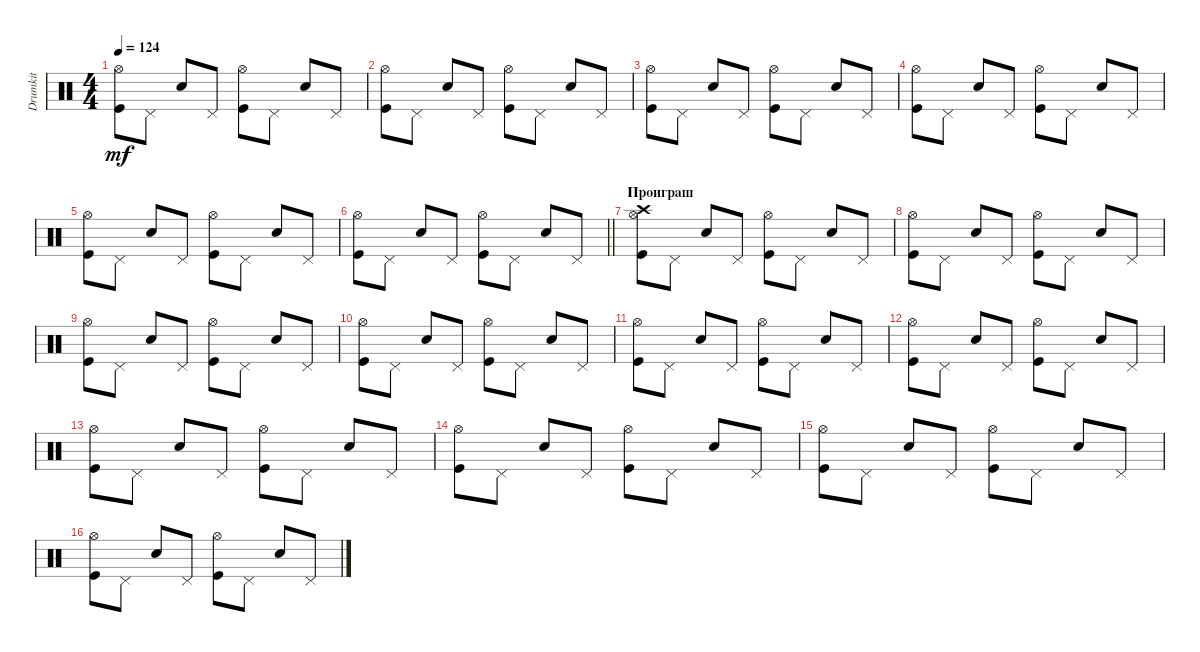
\track ("Drumkit" "Drumkit") {instrument percussion}
\staff {score}
\articulation defaults
\ts (4 4)
\tempo 124
\clef neutral
\ks c
("Kick (hit)" "Hi-Hat (open)").8{dy mf} "Pedal Hi-Hat (hit)".8 "Snare (hit) 2".8 "Pedal Hi-Hat (hit)".8 ("Kick (hit)" "Hi-Hat (open)").8 "Pedal Hi-Hat (hit)".8 "Snare (hit) 2".8 "Pedal Hi-Hat (hit)".8 |
("Kick (hit)" "Hi-Hat (open)").8 "Pedal Hi-Hat (hit)".8 "Snare (hit) 2".8 "Pedal Hi-Hat (hit)".8 ("Kick (hit)" "Hi-Hat (open)").8 "Pedal Hi-Hat (hit)".8 "Snare (hit) 2".8 "Pedal Hi-Hat (hit)".8 |
("Kick (hit)" "Hi-Hat (open)").8 "Pedal Hi-Hat (hit)".8 "Snare (hit) 2".8 "Pedal Hi-Hat (hit)".8 ("Kick (hit)" "Hi-Hat (open)").8 "Pedal Hi-Hat (hit)".8 "Snare (hit) 2".8 "Pedal Hi-Hat (hit)".8 |
("Kick (hit)" "Hi-Hat (open)").8 "Pedal Hi-Hat (hit)".8 "Snare (hit) 2".8 "Pedal Hi-Hat (hit)".8 ("Kick (hit)" "Hi-Hat (open)").8 "Pedal Hi-Hat (hit)".8 "Snare (hit) 2".8 "Pedal Hi-Hat (hit)".8 |
("Kick (hit)" "Hi-Hat (open)").8 "Pedal Hi-Hat (hit)".8 "Snare (hit) 2".8 "Pedal Hi-Hat (hit)".8 ("Kick (hit)" "Hi-Hat (open)").8 "Pedal Hi-Hat (hit)".8 "Snare (hit) 2".8 "Pedal Hi-Hat (hit)".8 |
\barLineRight lightlight
("Kick (hit)" "Hi-Hat (open)").8 "Pedal Hi-Hat (hit)".8 "Snare (hit) 2".8 "Pedal Hi-Hat (hit)".8 ("Kick (hit)" "Hi-Hat (open)").8 "Pedal Hi-Hat (hit)".8 "Snare (hit) 2".8 "Pedal Hi-Hat (hit)".8 |
\section ("" "Проиграш")
("Kick (hit)" "Hi-Hat (open)" "Crash high (hit)").8 "Pedal Hi-Hat (hit)".8 "Snare (hit) 2".8 "Pedal Hi-Hat (hit)".8 ("Kick (hit)" "Hi-Hat (open)").8 "Pedal Hi-Hat (hit)".8 "Snare (hit) 2".8 "Pedal Hi-Hat (hit)".8 |
("Kick (hit)" "Hi-Hat (open)").8 "Pedal Hi-Hat (hit)".8 "Snare (hit) 2".8 "Pedal Hi-Hat (hit)".8 ("Kick (hit)" "Hi-Hat (open)").8 "Pedal Hi-Hat (hit)".8 "Snare (hit) 2".8 "Pedal Hi-Hat (hit)".8 |
("Kick (hit)" "Hi-Hat (open)").8 "Pedal Hi-Hat (hit)".8 "Snare (hit) 2".8 "Pedal Hi-Hat (hit)".8 ("Kick (hit)" "Hi-Hat (open)").8 "Pedal Hi-Hat (hit)".8 "Snare (hit) 2".8 "Pedal Hi-Hat (hit)".8 |
("Kick (hit)" "Hi-Hat (open)").8 "Pedal Hi-Hat (hit)".8 "Snare (hit) 2".8 "Pedal Hi-Hat (hit)".8 ("Kick (hit)" "Hi-Hat (open)").8 "Pedal Hi-Hat (hit)".8 "Snare (hit) 2".8 "Pedal Hi-Hat (hit)".8 |
("Kick (hit)" "Hi-Hat (open)").8 "Pedal Hi-Hat (hit)".8 "Snare (hit) 2".8 "Pedal Hi-Hat (hit)".8 ("Kick (hit)" "Hi-Hat (open)").8 "Pedal Hi-Hat (hit)".8 "Snare (hit) 2".8 "Pedal Hi-Hat (hit)".8 |
("Kick (hit)" "Hi-Hat (open)").8 "Pedal Hi-Hat (hit)".8 "Snare (hit) 2".8 "Pedal Hi-Hat (hit)".8 ("Kick (hit)" "Hi-Hat (open)").8 "Pedal Hi-Hat (hit)".8 "Snare (hit) 2".8 "Pedal Hi-Hat (hit)".8 |
("Kick (hit)" "Hi-Hat (open)").8 "Pedal Hi-Hat (hit)".8 "Snare (hit) 2".8 "Pedal Hi-Hat (hit)".8 ("Kick (hit)" "Hi-Hat (open)").8 "Pedal Hi-Hat (hit)".8 "Snare (hit) 2".8 "Pedal Hi-Hat (hit)".8 |
("Kick (hit)" "Hi-Hat (open)").8 "Pedal Hi-Hat (hit)".8 "Snare (hit) 2".8 "Pedal Hi-Hat (hit)".8 ("Kick (hit)" "Hi-Hat (open)").8 "Pedal Hi-Hat (hit)".8 "Snare (hit) 2".8 "Pedal Hi-Hat (hit)".8 |
("Kick (hit)" "Hi-Hat (open)").8 "Pedal Hi-Hat (hit)".8 "Snare (hit) 2".8 "Pedal Hi-Hat (hit)".8 ("Kick (hit)" "Hi-Hat (open)").8 "Pedal Hi-Hat (hit)".8 "Snare (hit) 2".8 "Pedal Hi-Hat (hit)".8 |
("Kick (hit)" "Hi-Hat (open)").8 "Pedal Hi-Hat (hit)".8 "Snare (hit) 2".8 "Pedal Hi-Hat (hit)".8 ("Kick (hit)" "Hi-Hat (open)").8 "Pedal Hi-Hat (hit)".8 "Snare (hit) 2".8 "Pedal Hi-Hat (hit)".8
